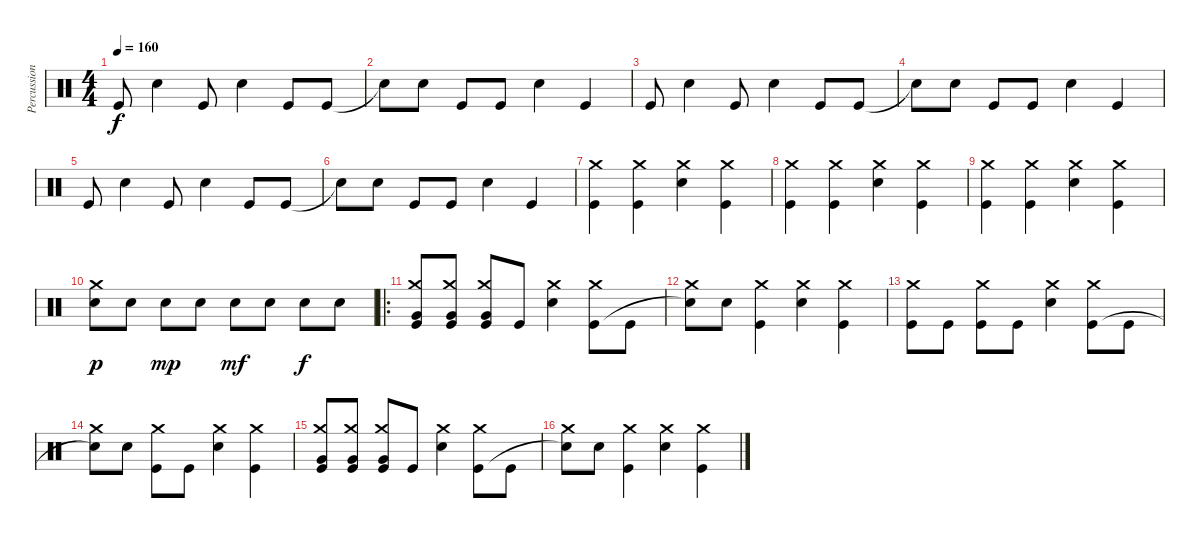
\track ("Percussion" "Percussion") {instrument percussion}
\staff {score}
\articulation defaults
\ts (4 4)
\tempo 160
\clef neutral
\ks c "Kick (hit)".8{dy f} "Electric Snare (hit)".4 "Kick (hit)".8 "Electric Snare (hit)".4 "Kick (hit)".8 "Kick (hit)".8
|
"Snare (hit)"{t}.8 "Electric Snare (hit)".8 "Kick (hit)".8 "Kick (hit)".8 "Electric Snare (hit)".4 "Kick (hit)".4 |
"Kick (hit)".8 "Electric Snare (hit)".4 "Kick (hit)".8 "Electric Snare (hit)".4 "Kick (hit)".8 "Kick (hit)".8 |
"Snare (hit)"{t}.8 "Electric Snare (hit)".8 "Kick (hit)".8 "Kick (hit)".8 "Electric Snare (hit)".4 "Kick (hit)".4 |
"Kick (hit)".8 "Electric Snare (hit)".4 "Kick (hit)".8 "Electric Snare (hit)".4 "Kick (hit)".8 "Kick (hit)".8 |
"Snare (hit)"{t}.8 "Electric Snare (hit)".8 "Kick (hit)".8 "Kick (hit)".8 "Electric Snare (hit)".4 "Kick (hit)".4 |
("Crash medium (hit)" "Kick (hit)").4 ("Crash medium (hit)" "Kick (hit)").4 ("Crash medium (hit)" "Electric Snare (hit)").4 ("Crash medium (hit)" "Kick (hit)").4 |
("Crash medium (hit)" "Kick (hit)").4 ("Crash medium (hit)" "Kick (hit)").4 ("Crash medium (hit)" "Electric Snare (hit)").4 ("Crash medium (hit)" "Kick (hit)").4 |
("Crash medium (hit)" "Kick (hit)").4 ("Crash medium (hit)" "Kick (hit)").4 ("Crash medium (hit)" "Electric Snare (hit)").4 ("Crash medium (hit)" "Kick (hit)").4 |
("Crash medium (hit)" "Electric Snare (hit)").8{dy p} "Electric Snare (hit)".8 "Electric Snare (hit)".8{dy mp} "Electric Snare (hit)".8 "Electric Snare (hit)".8{dy mf} "Electric Snare (hit)".8 "Electric Snare (hit)".8{dy f} "Electric Snare (hit)".8 |
\ro
("Crash medium (hit)" "Very Low Tom (hit)" "Kick (hit)").8 ("Crash medium (hit)" "Very Low Tom (hit)" "Kick (hit)").8 ("Crash medium (hit)" "Very Low Tom (hit)" "Kick (hit)").8 "Kick (hit)".8 ("Crash medium (hit)" "Electric Snare (hit)").4 ("Crash medium (hit)" "Kick (hit)").8 "Kick (hit)".8 |
("Crash medium (hit)" "Snare (hit)"{t}).8 "Electric Snare (hit)".8 ("Crash medium (hit)" "Kick (hit)").4 ("Crash medium (hit)" "Electric Snare (hit)").4 ("Crash medium (hit)" "Kick (hit)").4 |
("Crash medium (hit)" "Kick (hit)").8 "Kick (hit)".8 ("Crash medium (hit)" "Kick (hit)").8 "Kick (hit)".8 ("Crash medium (hit)" "Electric Snare (hit)").4 ("Crash medium (hit)" "Kick (hit)").8 "Kick (hit)".8 |
("Crash medium (hit)" "Snare (hit)"{t}).8 "Electric Snare (hit)".8 ("Crash medium (hit)" "Kick (hit)").8 "Kick (hit)".8 ("Crash medium (hit)" "Electric Snare (hit)").4 ("Crash medium (hit)" "Kick (hit)").4 |
("Crash medium (hit)" "Very Low Tom (hit)" "Kick (hit)").8 ("Crash medium (hit)" "Very Low Tom (hit)" "Kick (hit)").8 ("Crash medium (hit)" "Very Low Tom (hit)" "Kick (hit)").8 "Kick (hit)".8 ("Crash medium (hit)" "Electric Snare (hit)").4 ("Crash medium (hit)" "Kick (hit)").8 "Kick (hit)".8 |
("Crash medium (hit)" "Snare (hit)"{t}).8 "Electric Snare (hit)".8 ("Crash medium (hit)" "Kick (hit)").4 ("Crash medium (hit)" "Electric Snare (hit)").4 ("Crash medium (hit)" "Kick (hit)").4
